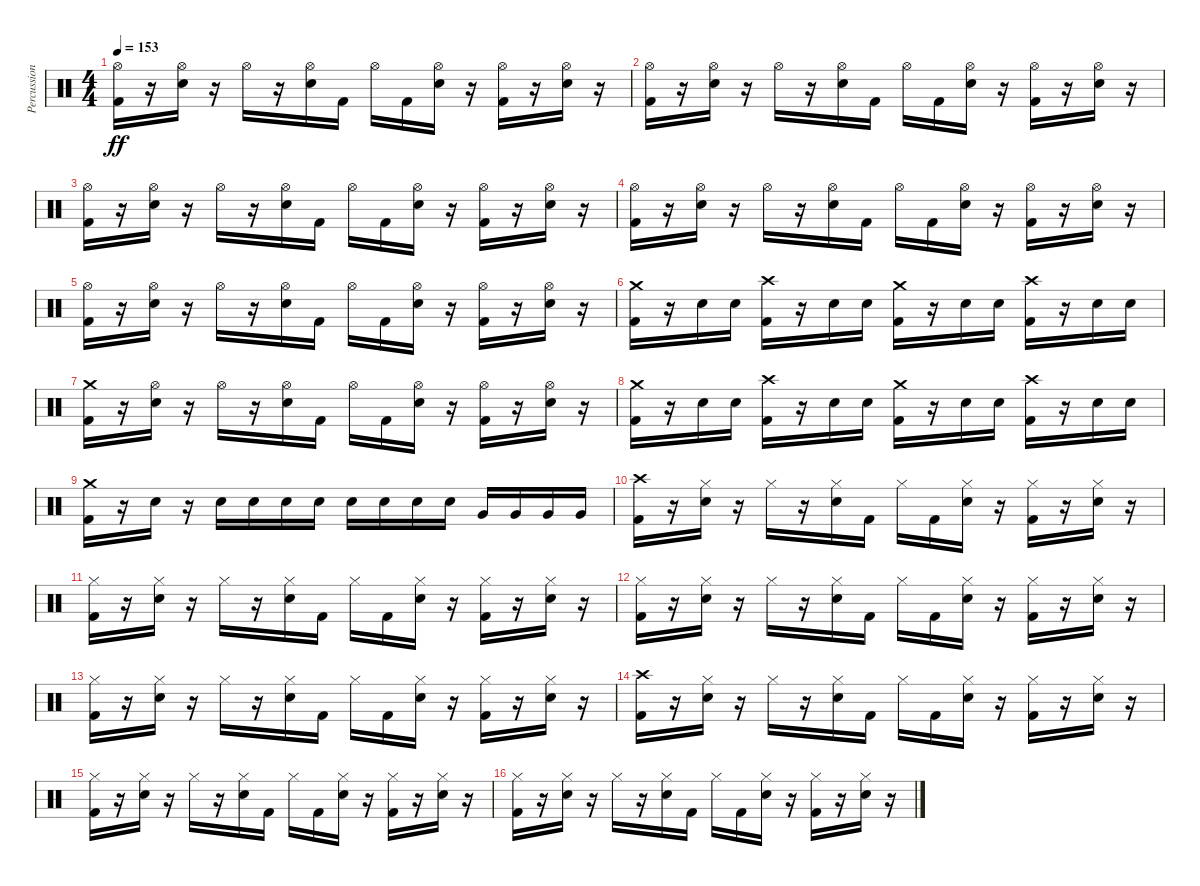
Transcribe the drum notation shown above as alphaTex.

\track ("Percussion" "Percussion") {instrument percussion}
\staff {score}
\articulation defaults
\ts (4 4)
\tempo 153
\clef neutral
\ks c
("Kick (hit) 2" "Hi-Hat (open)").16{dy ff} r.16 ("Snare (hit) 2" "Hi-Hat (open)").16 r.16 "Hi-Hat (open)".16 r.16 ("Hi-Hat (open)" "Snare (hit) 2").16 "Kick (hit) 2".16 "Hi-Hat (open)".16 "Kick (hit) 2".16 ("Snare (hit) 2" "Hi-Hat (open)").16 r.16 ("Kick (hit) 2" "Hi-Hat (open)").16 r.16 ("Snare (hit) 2" "Hi-Hat (open)").16 r.16 |
("Hi-Hat (open)" "Kick (hit) 2").16 r.16 ("Hi-Hat (open)" "Snare (hit) 2").16 r.16 "Hi-Hat (open)".16 r.16 ("Hi-Hat (open)" "Snare (hit) 2").16 "Kick (hit) 2".16 "Hi-Hat (open)".16 "Kick (hit) 2".16 ("Hi-Hat (open)" "Snare (hit) 2").16 r.16 ("Hi-Hat (open)" "Kick (hit) 2").16 r.16 ("Hi-Hat (open)" "Snare (hit) 2").16 r.16 |
("Hi-Hat (open)" "Kick (hit) 2").16 r.16 ("Hi-Hat (open)" "Snare (hit) 2").16 r.16 "Hi-Hat (open)".16 r.16 ("Hi-Hat (open)" "Snare (hit) 2").16 "Kick (hit) 2".16 "Hi-Hat (open)".16 "Kick (hit) 2".16 ("Hi-Hat (open)" "Snare (hit) 2").16 r.16 ("Hi-Hat (open)" "Kick (hit) 2").16 r.16 ("Hi-Hat (open)" "Snare (hit) 2").16 r.16 |
("Kick (hit) 2" "Hi-Hat (open)").16 r.16 ("Snare (hit) 2" "Hi-Hat (open)").16 r.16 "Hi-Hat (open)".16 r.16 ("Hi-Hat (open)" "Snare (hit) 2").16 "Kick (hit) 2".16 "Hi-Hat (open)".16 "Kick (hit) 2".16 ("Snare (hit) 2" "Hi-Hat (open)").16 r.16 ("Kick (hit) 2" "Hi-Hat (open)").16 r.16 ("Snare (hit) 2" "Hi-Hat (open)").16 r.16 |
("Kick (hit) 2" "Hi-Hat (open)").16 r.16 ("Snare (hit) 2" "Hi-Hat (open)").16 r.16 "Hi-Hat (open)".16 r.16 ("Hi-Hat (open)" "Snare (hit) 2").16 "Kick (hit) 2".16 "Hi-Hat (open)".16 "Kick (hit) 2".16 ("Snare (hit) 2" "Hi-Hat (open)").16 r.16 ("Kick (hit) 2" "Hi-Hat (open)").16 r.16 ("Snare (hit) 2" "Hi-Hat (open)").16 r.16 |
("Crash medium (hit)" "Kick (hit) 2").16 r.16 "Snare (hit) 2".16 "Snare (hit) 2".16 ("Crash high (hit)" "Kick (hit) 2").16 r.16 "Snare (hit) 2".16 "Snare (hit) 2".16 ("Crash medium (hit)" "Kick (hit) 2").16 r.16 "Snare (hit) 2".16 "Snare (hit) 2".16 ("Crash high (hit)" "Kick (hit) 2").16 r.16 "Snare (hit) 2".16 "Snare (hit) 2".16 |
("Crash medium (hit)" "Kick (hit) 2").16 r.16 ("Hi-Hat (open)" "Snare (hit) 2").16 r.16 "Hi-Hat (open)".16 r.16 ("Hi-Hat (open)" "Snare (hit) 2").16 "Kick (hit) 2".16 "Hi-Hat (open)".16 "Kick (hit) 2".16 ("Hi-Hat (open)" "Snare (hit) 2").16 r.16 ("Hi-Hat (open)" "Kick (hit) 2").16 r.16 ("Hi-Hat (open)" "Snare (hit) 2").16 r.16 |
("Kick (hit) 2" "Crash medium (hit)").16 r.16 "Snare (hit) 2".16 "Snare (hit) 2".16 ("Kick (hit) 2" "Crash high (hit)").16 r.16 "Snare (hit) 2".16 "Snare (hit) 2".16 ("Kick (hit) 2" "Crash medium (hit)").16 r.16 "Snare (hit) 2".16 "Snare (hit) 2".16 ("Kick (hit) 2" "Crash high (hit)").16 r.16 "Snare (hit) 2".16 "Snare (hit) 2".16 |
("Crash medium (hit)" "Kick (hit) 2").16 r.16 "Snare (hit) 2".16 r.16 "Snare (hit) 2".16 "Snare (hit) 2".16 "Snare (hit) 2".16 "Snare (hit) 2".16 "Snare (hit) 2".16 "Snare (hit) 2".16 "Snare (hit) 2".16 "Snare (hit) 2".16 "Very Low Tom (hit)".16 "Very Low Tom (hit)".16 "Very Low Tom (hit)".16 "Very Low Tom (hit)".16 |
("Kick (hit) 2" "Crash high (hit)").16 r.16 ("Snare (hit) 2" "Hi-Hat (closed)").16 r.16 "Hi-Hat (closed)".16 r.16 ("Hi-Hat (closed)" "Snare (hit) 2").16 "Kick (hit) 2".16 "Hi-Hat (closed)".16 "Kick (hit) 2".16 ("Snare (hit) 2" "Hi-Hat (closed)").16 r.16 ("Kick (hit) 2" "Hi-Hat (closed)").16 r.16 ("Snare (hit) 2" "Hi-Hat (closed)").16 r.16 |
("Kick (hit) 2" "Hi-Hat (closed)").16 r.16 ("Snare (hit) 2" "Hi-Hat (closed)").16 r.16 "Hi-Hat (closed)".16 r.16 ("Hi-Hat (closed)" "Snare (hit) 2").16 "Kick (hit) 2".16 "Hi-Hat (closed)".16 "Kick (hit) 2".16 ("Snare (hit) 2" "Hi-Hat (closed)").16 r.16 ("Kick (hit) 2" "Hi-Hat (closed)").16 r.16 ("Snare (hit) 2" "Hi-Hat (closed)").16 r.16 |
("Kick (hit) 2" "Hi-Hat (closed)").16 r.16 ("Hi-Hat (closed)" "Snare (hit) 2").16 r.16 "Hi-Hat (closed)".16 r.16 ("Hi-Hat (closed)" "Snare (hit) 2").16 "Kick (hit) 2".16 "Hi-Hat (closed)".16 "Kick (hit) 2".16 ("Hi-Hat (closed)" "Snare (hit) 2").16 r.16 ("Hi-Hat (closed)" "Kick (hit) 2").16 r.16 ("Hi-Hat (closed)" "Snare (hit) 2").16 r.16 |
("Hi-Hat (closed)" "Kick (hit) 2").16 r.16 ("Hi-Hat (closed)" "Snare (hit) 2").16 r.16 "Hi-Hat (closed)".16 r.16 ("Hi-Hat (closed)" "Snare (hit) 2").16 "Kick (hit) 2".16 "Hi-Hat (closed)".16 "Kick (hit) 2".16 ("Hi-Hat (closed)" "Snare (hit) 2").16 r.16 ("Hi-Hat (closed)" "Kick (hit) 2").16 r.16 ("Hi-Hat (closed)" "Snare (hit) 2").16 r.16 |
("Crash high (hit)" "Kick (hit) 2").16 r.16 ("Hi-Hat (closed)" "Snare (hit) 2").16 r.16 "Hi-Hat (closed)".16 r.16 ("Hi-Hat (closed)" "Snare (hit) 2").16 "Kick (hit) 2".16 "Hi-Hat (closed)".16 "Kick (hit) 2".16 ("Hi-Hat (closed)" "Snare (hit) 2").16 r.16 ("Hi-Hat (closed)" "Kick (hit) 2").16 r.16 ("Hi-Hat (closed)" "Snare (hit) 2").16 r.16 |
("Hi-Hat (closed)" "Kick (hit) 2").16 r.16 ("Hi-Hat (closed)" "Snare (hit) 2").16 r.16 "Hi-Hat (closed)".16 r.16 ("Hi-Hat (closed)" "Snare (hit) 2").16 "Kick (hit) 2".16 "Hi-Hat (closed)".16 "Kick (hit) 2".16 ("Hi-Hat (closed)" "Snare (hit) 2").16 r.16 ("Hi-Hat (closed)" "Kick (hit) 2").16 r.16 ("Hi-Hat (closed)" "Snare (hit) 2").16 r.16 |
("Hi-Hat (closed)" "Kick (hit) 2").16 r.16 ("Snare (hit) 2" "Hi-Hat (closed)").16 r.16 "Hi-Hat (closed)".16 r.16 ("Hi-Hat (closed)" "Snare (hit) 2").16 "Kick (hit) 2".16 "Hi-Hat (closed)".16 "Kick (hit) 2".16 ("Snare (hit) 2" "Hi-Hat (closed)").16 r.16 ("Kick (hit) 2" "Hi-Hat (closed)").16 r.16 ("Snare (hit) 2" "Hi-Hat (closed)").16 r.16
